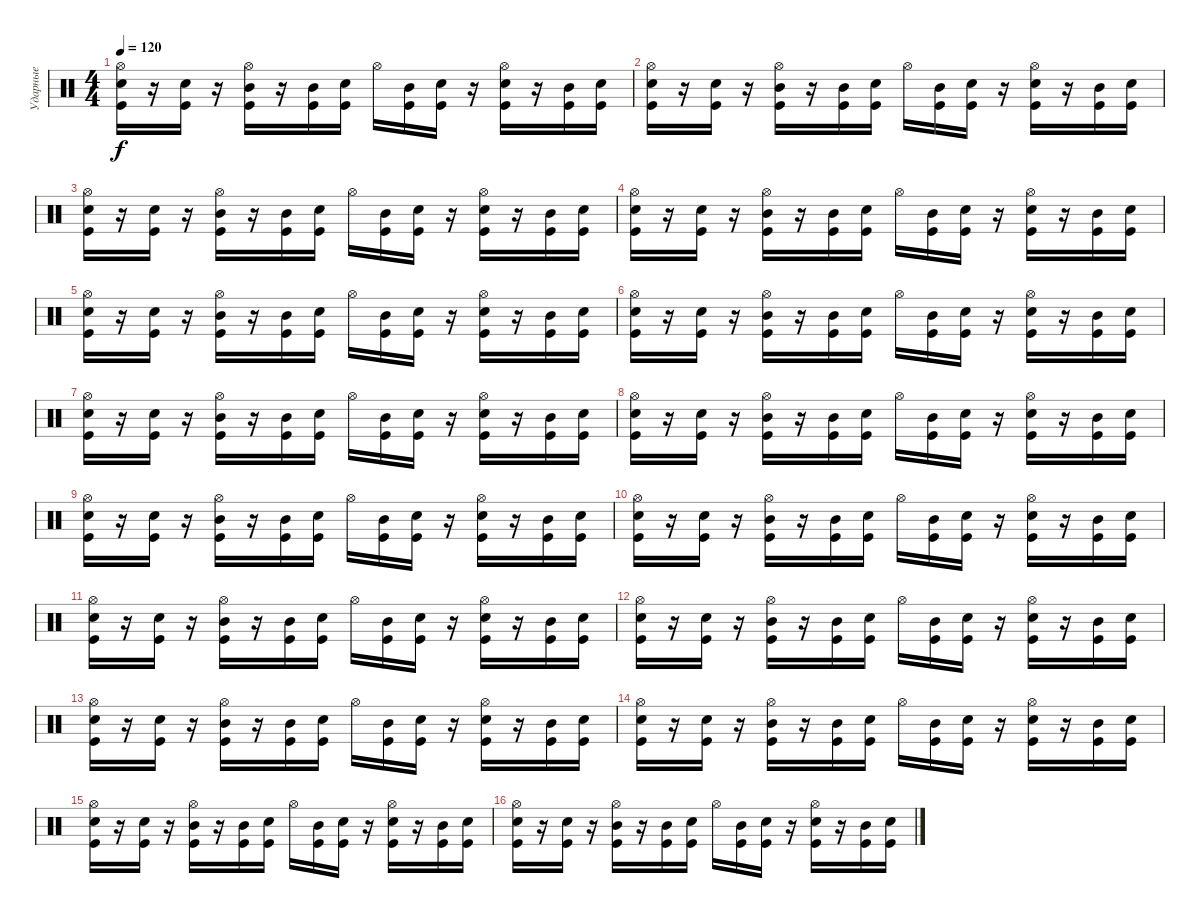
\track ("Ударные" "Ударные") {instrument percussion}
\staff {score}
\articulation defaults
\ts (4 4)
\tempo 120
\clef neutral
\ks c
("Hi-Hat (open)" "Snare (hit) 2" "Kick (hit)").16{dy f} r.16 ("Snare (hit) 2" "Kick (hit)").16 r.16 ("Hi-Hat (open)" "Mid Tom (hit)" "Kick (hit)").16 r.16 ("Mid Tom (hit)" "Kick (hit)").16 ("Snare (hit) 2" "Kick (hit)").16 "Hi-Hat (open)".16 ("Mid Tom (hit)" "Kick (hit)").16 ("Snare (hit) 2" "Kick (hit)").16 r.16 ("Hi-Hat (open)" "Snare (hit) 2" "Kick (hit)").16 r.16 ("Mid Tom (hit)" "Kick (hit)").16 ("Snare (hit) 2" "Kick (hit)").16 |
("Hi-Hat (open)" "Snare (hit) 2" "Kick (hit)").16 r.16 ("Snare (hit) 2" "Kick (hit)").16 r.16 ("Hi-Hat (open)" "Mid Tom (hit)" "Kick (hit)").16 r.16 ("Mid Tom (hit)" "Kick (hit)").16 ("Snare (hit) 2" "Kick (hit)").16 "Hi-Hat (open)".16 ("Mid Tom (hit)" "Kick (hit)").16 ("Snare (hit) 2" "Kick (hit)").16 r.16 ("Hi-Hat (open)" "Snare (hit) 2" "Kick (hit)").16 r.16 ("Mid Tom (hit)" "Kick (hit)").16 ("Snare (hit) 2" "Kick (hit)").16 |
("Hi-Hat (open)" "Snare (hit) 2" "Kick (hit)").16 r.16 ("Snare (hit) 2" "Kick (hit)").16 r.16 ("Hi-Hat (open)" "Mid Tom (hit)" "Kick (hit)").16 r.16 ("Mid Tom (hit)" "Kick (hit)").16 ("Snare (hit) 2" "Kick (hit)").16 "Hi-Hat (open)".16 ("Mid Tom (hit)" "Kick (hit)").16 ("Snare (hit) 2" "Kick (hit)").16 r.16 ("Hi-Hat (open)" "Snare (hit) 2" "Kick (hit)").16 r.16 ("Mid Tom (hit)" "Kick (hit)").16 ("Snare (hit) 2" "Kick (hit)").16 |
("Hi-Hat (open)" "Snare (hit) 2" "Kick (hit)").16 r.16 ("Snare (hit) 2" "Kick (hit)").16 r.16 ("Hi-Hat (open)" "Mid Tom (hit)" "Kick (hit)").16 r.16 ("Mid Tom (hit)" "Kick (hit)").16 ("Snare (hit) 2" "Kick (hit)").16 "Hi-Hat (open)".16 ("Mid Tom (hit)" "Kick (hit)").16 ("Snare (hit) 2" "Kick (hit)").16 r.16 ("Hi-Hat (open)" "Snare (hit) 2" "Kick (hit)").16 r.16 ("Mid Tom (hit)" "Kick (hit)").16 ("Snare (hit) 2" "Kick (hit)").16 |
("Hi-Hat (open)" "Snare (hit) 2" "Kick (hit)").16 r.16 ("Snare (hit) 2" "Kick (hit)").16 r.16 ("Hi-Hat (open)" "Mid Tom (hit)" "Kick (hit)").16 r.16 ("Mid Tom (hit)" "Kick (hit)").16 ("Snare (hit) 2" "Kick (hit)").16 "Hi-Hat (open)".16 ("Mid Tom (hit)" "Kick (hit)").16 ("Snare (hit) 2" "Kick (hit)").16 r.16 ("Hi-Hat (open)" "Snare (hit) 2" "Kick (hit)").16 r.16 ("Mid Tom (hit)" "Kick (hit)").16 ("Snare (hit) 2" "Kick (hit)").16 |
("Hi-Hat (open)" "Snare (hit) 2" "Kick (hit)").16 r.16 ("Snare (hit) 2" "Kick (hit)").16 r.16 ("Hi-Hat (open)" "Mid Tom (hit)" "Kick (hit)").16 r.16 ("Mid Tom (hit)" "Kick (hit)").16 ("Snare (hit) 2" "Kick (hit)").16 "Hi-Hat (open)".16 ("Mid Tom (hit)" "Kick (hit)").16 ("Snare (hit) 2" "Kick (hit)").16 r.16 ("Hi-Hat (open)" "Snare (hit) 2" "Kick (hit)").16 r.16 ("Mid Tom (hit)" "Kick (hit)").16 ("Snare (hit) 2" "Kick (hit)").16 |
("Hi-Hat (open)" "Snare (hit) 2" "Kick (hit)").16 r.16 ("Snare (hit) 2" "Kick (hit)").16 r.16 ("Hi-Hat (open)" "Mid Tom (hit)" "Kick (hit)").16 r.16 ("Mid Tom (hit)" "Kick (hit)").16 ("Snare (hit) 2" "Kick (hit)").16 "Hi-Hat (open)".16 ("Mid Tom (hit)" "Kick (hit)").16 ("Snare (hit) 2" "Kick (hit)").16 r.16 ("Hi-Hat (open)" "Snare (hit) 2" "Kick (hit)").16 r.16 ("Mid Tom (hit)" "Kick (hit)").16 ("Snare (hit) 2" "Kick (hit)").16 |
("Hi-Hat (open)" "Snare (hit) 2" "Kick (hit)").16 r.16 ("Snare (hit) 2" "Kick (hit)").16 r.16 ("Hi-Hat (open)" "Mid Tom (hit)" "Kick (hit)").16 r.16 ("Mid Tom (hit)" "Kick (hit)").16 ("Snare (hit) 2" "Kick (hit)").16 "Hi-Hat (open)".16 ("Mid Tom (hit)" "Kick (hit)").16 ("Snare (hit) 2" "Kick (hit)").16 r.16 ("Hi-Hat (open)" "Snare (hit) 2" "Kick (hit)").16 r.16 ("Mid Tom (hit)" "Kick (hit)").16 ("Snare (hit) 2" "Kick (hit)").16 |
("Hi-Hat (open)" "Snare (hit) 2" "Kick (hit)").16 r.16 ("Snare (hit) 2" "Kick (hit)").16 r.16 ("Hi-Hat (open)" "Mid Tom (hit)" "Kick (hit)").16 r.16 ("Mid Tom (hit)" "Kick (hit)").16 ("Snare (hit) 2" "Kick (hit)").16 "Hi-Hat (open)".16 ("Mid Tom (hit)" "Kick (hit)").16 ("Snare (hit) 2" "Kick (hit)").16 r.16 ("Hi-Hat (open)" "Snare (hit) 2" "Kick (hit)").16 r.16 ("Mid Tom (hit)" "Kick (hit)").16 ("Snare (hit) 2" "Kick (hit)").16 |
("Hi-Hat (open)" "Snare (hit) 2" "Kick (hit)").16 r.16 ("Snare (hit) 2" "Kick (hit)").16 r.16 ("Hi-Hat (open)" "Mid Tom (hit)" "Kick (hit)").16 r.16 ("Mid Tom (hit)" "Kick (hit)").16 ("Snare (hit) 2" "Kick (hit)").16 "Hi-Hat (open)".16 ("Mid Tom (hit)" "Kick (hit)").16 ("Snare (hit) 2" "Kick (hit)").16 r.16 ("Hi-Hat (open)" "Snare (hit) 2" "Kick (hit)").16 r.16 ("Mid Tom (hit)" "Kick (hit)").16 ("Snare (hit) 2" "Kick (hit)").16 |
("Hi-Hat (open)" "Snare (hit) 2" "Kick (hit)").16 r.16 ("Snare (hit) 2" "Kick (hit)").16 r.16 ("Hi-Hat (open)" "Mid Tom (hit)" "Kick (hit)").16 r.16 ("Mid Tom (hit)" "Kick (hit)").16 ("Snare (hit) 2" "Kick (hit)").16 "Hi-Hat (open)".16 ("Mid Tom (hit)" "Kick (hit)").16 ("Snare (hit) 2" "Kick (hit)").16 r.16 ("Hi-Hat (open)" "Snare (hit) 2" "Kick (hit)").16 r.16 ("Mid Tom (hit)" "Kick (hit)").16 ("Snare (hit) 2" "Kick (hit)").16 |
("Hi-Hat (open)" "Snare (hit) 2" "Kick (hit)").16 r.16 ("Snare (hit) 2" "Kick (hit)").16 r.16 ("Hi-Hat (open)" "Mid Tom (hit)" "Kick (hit)").16 r.16 ("Mid Tom (hit)" "Kick (hit)").16 ("Snare (hit) 2" "Kick (hit)").16 "Hi-Hat (open)".16 ("Mid Tom (hit)" "Kick (hit)").16 ("Snare (hit) 2" "Kick (hit)").16 r.16 ("Hi-Hat (open)" "Snare (hit) 2" "Kick (hit)").16 r.16 ("Mid Tom (hit)" "Kick (hit)").16 ("Snare (hit) 2" "Kick (hit)").16 |
("Hi-Hat (open)" "Snare (hit) 2" "Kick (hit)").16 r.16 ("Snare (hit) 2" "Kick (hit)").16 r.16 ("Hi-Hat (open)" "Mid Tom (hit)" "Kick (hit)").16 r.16 ("Mid Tom (hit)" "Kick (hit)").16 ("Snare (hit) 2" "Kick (hit)").16 "Hi-Hat (open)".16 ("Mid Tom (hit)" "Kick (hit)").16 ("Snare (hit) 2" "Kick (hit)").16 r.16 ("Hi-Hat (open)" "Snare (hit) 2" "Kick (hit)").16 r.16 ("Mid Tom (hit)" "Kick (hit)").16 ("Snare (hit) 2" "Kick (hit)").16 |
("Hi-Hat (open)" "Snare (hit) 2" "Kick (hit)").16 r.16 ("Snare (hit) 2" "Kick (hit)").16 r.16 ("Hi-Hat (open)" "Mid Tom (hit)" "Kick (hit)").16 r.16 ("Mid Tom (hit)" "Kick (hit)").16 ("Snare (hit) 2" "Kick (hit)").16 "Hi-Hat (open)".16 ("Mid Tom (hit)" "Kick (hit)").16 ("Snare (hit) 2" "Kick (hit)").16 r.16 ("Hi-Hat (open)" "Snare (hit) 2" "Kick (hit)").16 r.16 ("Mid Tom (hit)" "Kick (hit)").16 ("Snare (hit) 2" "Kick (hit)").16 |
("Hi-Hat (open)" "Snare (hit) 2" "Kick (hit)").16 r.16 ("Snare (hit) 2" "Kick (hit)").16 r.16 ("Hi-Hat (open)" "Mid Tom (hit)" "Kick (hit)").16 r.16 ("Mid Tom (hit)" "Kick (hit)").16 ("Snare (hit) 2" "Kick (hit)").16 "Hi-Hat (open)".16 ("Mid Tom (hit)" "Kick (hit)").16 ("Snare (hit) 2" "Kick (hit)").16 r.16 ("Hi-Hat (open)" "Snare (hit) 2" "Kick (hit)").16 r.16 ("Mid Tom (hit)" "Kick (hit)").16 ("Snare (hit) 2" "Kick (hit)").16 |
("Hi-Hat (open)" "Snare (hit) 2" "Kick (hit)").16 r.16 ("Snare (hit) 2" "Kick (hit)").16 r.16 ("Hi-Hat (open)" "Mid Tom (hit)" "Kick (hit)").16 r.16 ("Mid Tom (hit)" "Kick (hit)").16 ("Snare (hit) 2" "Kick (hit)").16 "Hi-Hat (open)".16 ("Mid Tom (hit)" "Kick (hit)").16 ("Snare (hit) 2" "Kick (hit)").16 r.16 ("Hi-Hat (open)" "Snare (hit) 2" "Kick (hit)").16 r.16 ("Mid Tom (hit)" "Kick (hit)").16 ("Snare (hit) 2" "Kick (hit)").16
